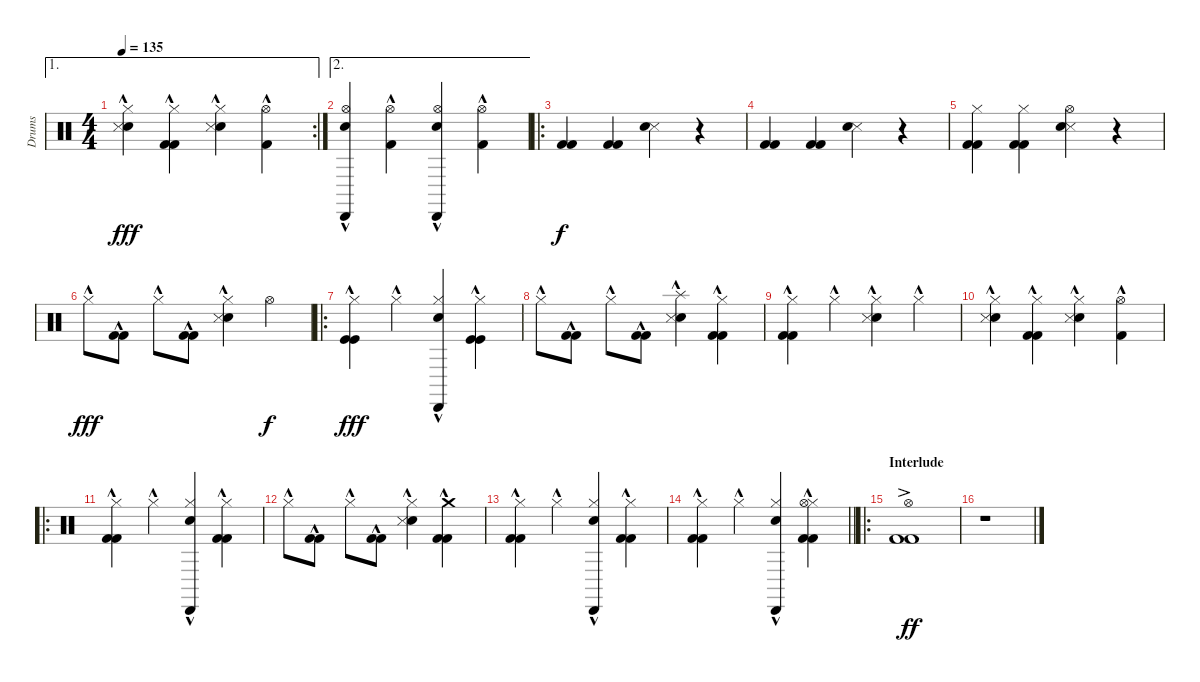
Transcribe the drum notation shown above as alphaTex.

\track ("Drums" "Drums") {instrument percussion}
\staff {score}
\articulation defaults
\ae 1
\rc 2
\ts (4 4)
\tempo 135
\clef neutral
\ks c
("Hi-Hat (closed)"{hac} "Electric Snare (hit)"{hac} "Snare (side stick) 3"{hac}).4{dy fff} ("Hi-Hat (closed)"{hac} "Kick (hit) 2"{hac} "Kick (hit) 2"{hac}).4 ("Hi-Hat (closed)"{hac} "Electric Snare (hit)"{hac} "Snare (side stick) 3"{hac}).4 ("Hi-Hat (open)"{hac} "Kick (hit) 2"{hac}).4 |
\ae 2
("Cabasa (hit)"{hac} "Electric Snare (hit)"{hac} "Hi-Hat (open)"{hac}).4 ("Hi-Hat (open)"{hac} "Kick (hit) 2"{hac}).4 ("Cabasa (hit)"{hac} "Electric Snare (hit)"{hac} "Hi-Hat (open)"{hac}).4 ("Hi-Hat (open)"{hac} "Kick (hit) 2"{hac}).4 |
\ro
("Kick (hit) 2" "Kick (hit) 2").4{dy f} ("Kick (hit) 2" "Kick (hit) 2").4 ("Snare (side stick) 3" "Electric Snare (hit)").4 r.4 |
("Kick (hit) 2" "Kick (hit) 2").4 ("Kick (hit) 2" "Kick (hit) 2").4 ("Snare (side stick) 3" "Electric Snare (hit)").4 r.4 |
("Kick (hit) 2" "Hi-Hat (closed)" "Kick (hit) 2").4 ("Kick (hit) 2" "Hi-Hat (closed)" "Kick (hit) 2").4 ("Snare (side stick) 3" "Electric Snare (hit)" "Hi-Hat (open)").4 r.4 |
"Hi-Hat (closed)"{hac}.8{dy fff} ("Kick (hit) 2"{hac} "Kick (hit) 2"{hac}).8 "Hi-Hat (closed)"{hac}.8 ("Kick (hit) 2"{hac} "Kick (hit) 2"{hac}).8 ("Hi-Hat (closed)" "Electric Snare (hit)"{hac} "Snare (side stick) 3"{hac}).4 "Hi-Hat (open)".4{dy f} |
\ro
("Hi-Hat (closed)"{hac} "Kick (hit)"{hac} "Kick (hit)"{hac}).4{dy fff} "Hi-Hat (closed)"{hac}.4 ("Hi-Hat (closed)"{hac} "Cabasa (hit)"{hac} "Electric Snare (hit)"{hac}).4 ("Hi-Hat (closed)"{hac} "Kick (hit)"{hac} "Kick (hit)"{hac}).4 |
"Hi-Hat (closed)"{hac}.8 ("Kick (hit) 2"{hac} "Kick (hit) 2"{hac}).8 "Hi-Hat (closed)"{hac}.8 ("Kick (hit) 2"{hac} "Kick (hit) 2"{hac}).8 ("Splash (hit)"{hac} "Electric Snare (hit)"{hac} "Snare (side stick) 3"{hac}).4 ("Hi-Hat (closed)" "Kick (hit) 2"{hac} "Kick (hit) 2"{hac}).4 |
("Hi-Hat (closed)"{hac} "Kick (hit) 2"{hac} "Kick (hit) 2"{hac}).4 "Hi-Hat (closed)"{hac}.4 ("Hi-Hat (closed)"{hac} "Electric Snare (hit)"{hac} "Snare (side stick) 3"{hac}).4 "Hi-Hat (closed)"{hac}.4 |
("Hi-Hat (closed)"{hac} "Electric Snare (hit)"{hac} "Snare (side stick) 3"{hac}).4 ("Hi-Hat (closed)"{hac} "Kick (hit) 2"{hac} "Kick (hit) 2"{hac}).4 ("Hi-Hat (closed)"{hac} "Electric Snare (hit)"{hac} "Snare (side stick) 3"{hac}).4 ("Hi-Hat (open)"{hac} "Kick (hit) 2"{hac}).4 |
\ro
("Hi-Hat (closed)"{hac} "Kick (hit) 2"{hac} "Kick (hit) 2"{hac}).4 "Hi-Hat (closed)"{hac}.4 ("Hi-Hat (closed)"{hac} "Cabasa (hit)"{hac} "Electric Snare (hit)"{hac}).4 ("Hi-Hat (closed)"{hac} "Kick (hit) 2"{hac} "Kick (hit) 2"{hac}).4 |
"Hi-Hat (closed)"{hac}.8 ("Kick (hit) 2"{hac} "Kick (hit) 2"{hac}).8 "Hi-Hat (closed)"{hac}.8 ("Kick (hit) 2"{hac} "Kick (hit) 2"{hac}).8 ("Hi-Hat (closed)" "Electric Snare (hit)"{hac} "Snare (side stick) 3"{hac}).4 ("Crash medium (hit)"{hac} "Kick (hit) 2"{hac} "Kick (hit) 2"{hac}).4 |
("Hi-Hat (closed)"{hac} "Kick (hit) 2"{hac} "Kick (hit) 2"{hac}).4 "Hi-Hat (closed)"{hac}.4 ("Hi-Hat (closed)"{hac} "Cabasa (hit)"{hac} "Electric Snare (hit)"{hac}).4 ("Hi-Hat (closed)"{hac} "Kick (hit) 2"{hac} "Kick (hit) 2"{hac}).4 |
\barLineRight lightlight
("Hi-Hat (closed)"{hac} "Kick (hit) 2"{hac} "Kick (hit) 2"{hac}).4 "Hi-Hat (closed)"{hac}.4 ("Hi-Hat (closed)"{hac} "Cabasa (hit)"{hac} "Electric Snare (hit)"{hac}).4 ("Hi-Hat (closed)"{hac} "Kick (hit) 2"{hac} "Kick (hit) 2"{hac} "Hi-Hat (open)"{hac}).4 |
\ro
\section ("" "Interlude")
("Hi-Hat (open)"{ac} "Kick (hit) 2"{ac} "Kick (hit) 2"{ac}).1{dy ff} |
r.1
